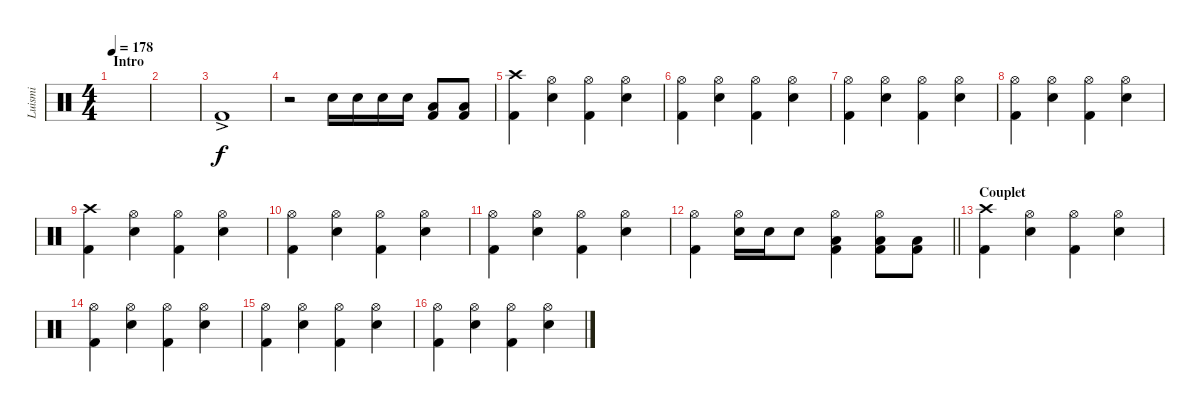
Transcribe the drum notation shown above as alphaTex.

\track ("Luismi" "Luismi") {instrument percussion}
\staff {score}
\articulation defaults
\ts (4 4)
\section ("" "Intro")
\tempo 178
\clef neutral
\ks c
|
|
"Kick (hit) 2"{ac}.1 |
r.2 "Snare (hit) 2".16{dy f} "Snare (hit) 2".16 "Snare (hit) 2".16 "Snare (hit) 2".16 ("Low Tom (hit)" "Kick (hit) 2").8 ("Low Floor Tom (hit)" "Kick (hit) 2").8 |
("Crash high (hit)" "Kick (hit) 2").4 ("Hi-Hat (open)" "Snare (hit) 2").4 ("Hi-Hat (open)" "Kick (hit) 2").4 ("Hi-Hat (open)" "Snare (hit) 2").4 |
("Hi-Hat (open)" "Kick (hit) 2").4 ("Hi-Hat (open)" "Snare (hit) 2").4 ("Hi-Hat (open)" "Kick (hit) 2").4 ("Hi-Hat (open)" "Snare (hit) 2").4 |
("Hi-Hat (open)" "Kick (hit) 2").4 ("Hi-Hat (open)" "Snare (hit) 2").4 ("Hi-Hat (open)" "Kick (hit) 2").4 ("Hi-Hat (open)" "Snare (hit) 2").4 |
("Hi-Hat (open)" "Kick (hit) 2").4 ("Hi-Hat (open)" "Snare (hit) 2").4 ("Hi-Hat (open)" "Kick (hit) 2").4 ("Hi-Hat (open)" "Snare (hit) 2").4 |
("Crash high (hit)" "Kick (hit) 2").4 ("Hi-Hat (open)" "Snare (hit) 2").4 ("Hi-Hat (open)" "Kick (hit) 2").4 ("Hi-Hat (open)" "Snare (hit) 2").4 |
("Hi-Hat (open)" "Kick (hit) 2").4 ("Hi-Hat (open)" "Snare (hit) 2").4 ("Hi-Hat (open)" "Kick (hit) 2").4 ("Hi-Hat (open)" "Snare (hit) 2").4 |
("Hi-Hat (open)" "Kick (hit) 2").4 ("Hi-Hat (open)" "Snare (hit) 2").4 ("Hi-Hat (open)" "Kick (hit) 2").4 ("Hi-Hat (open)" "Snare (hit) 2").4 |
\barLineRight lightlight
("Hi-Hat (open)" "Kick (hit) 2").4 ("Hi-Hat (open)" "Snare (hit) 2").16 "Snare (hit) 2".16 "Snare (hit) 2".8 ("Hi-Hat (open)" "Low Floor Tom (hit)" "Kick (hit) 2").4 ("Hi-Hat (open)" "Low Tom (hit)" "Kick (hit) 2").8 ("Low Floor Tom (hit)" "Kick (hit) 2").8 |
\section ("" "Couplet")
("Crash high (hit)" "Kick (hit) 2").4 ("Hi-Hat (open)" "Snare (hit) 2").4 ("Hi-Hat (open)" "Kick (hit) 2").4 ("Hi-Hat (open)" "Snare (hit) 2").4 |
("Hi-Hat (open)" "Kick (hit) 2").4 ("Hi-Hat (open)" "Snare (hit) 2").4 ("Hi-Hat (open)" "Kick (hit) 2").4 ("Hi-Hat (open)" "Snare (hit) 2").4 |
("Hi-Hat (open)" "Kick (hit) 2").4 ("Hi-Hat (open)" "Snare (hit) 2").4 ("Hi-Hat (open)" "Kick (hit) 2").4 ("Hi-Hat (open)" "Snare (hit) 2").4 |
("Hi-Hat (open)" "Kick (hit) 2").4 ("Hi-Hat (open)" "Snare (hit) 2").4 ("Hi-Hat (open)" "Kick (hit) 2").4 ("Hi-Hat (open)" "Snare (hit) 2").4
